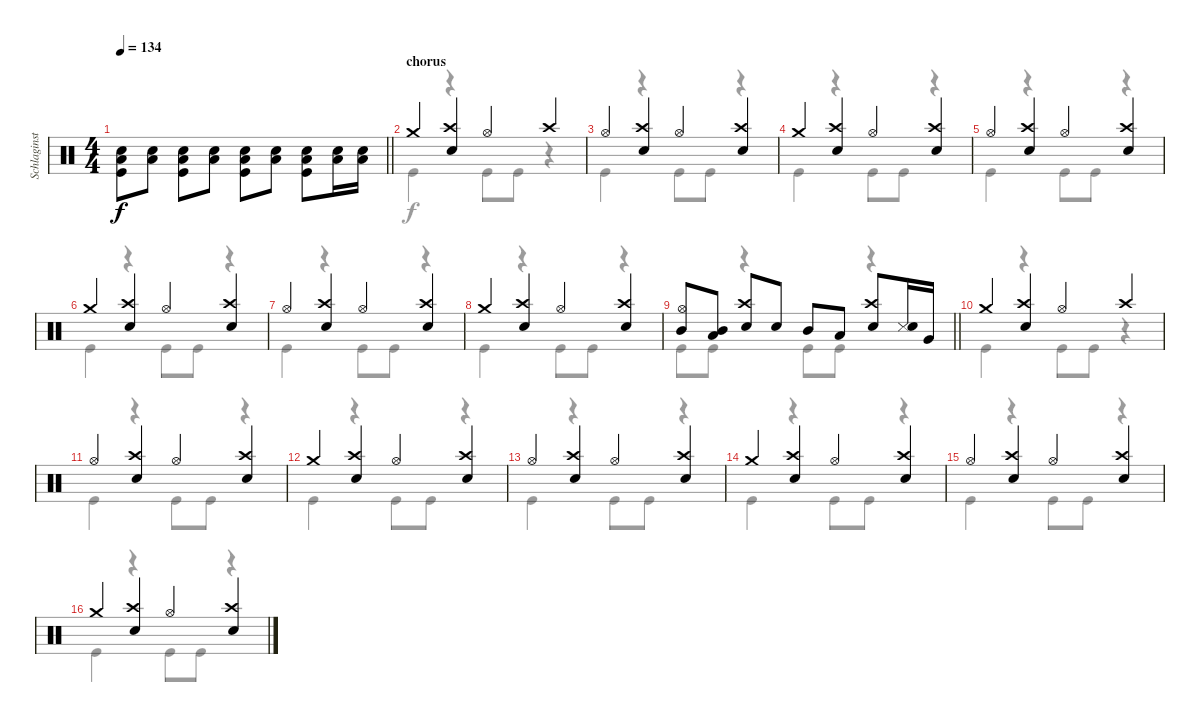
\track ("Schlaginstrumente - Auswahl" "Schlaginst") {instrument percussion}
\staff {score}
\articulation defaults
\voice
\ts (4 4)
\tempo 134
\clef neutral
\barLineRight lightlight
\ks c
("Snare (hit) 2" "Kick (hit)" "Low Tom (hit)").8{dy f} ("Snare (hit) 2" "Low Tom (hit)").8 ("Snare (hit) 2" "Kick (hit)" "Low Tom (hit)").8 ("Snare (hit) 2" "Low Tom (hit)").8 ("Snare (hit) 2" "Kick (hit)" "Low Tom (hit)").8 ("Snare (hit) 2" "Low Tom (hit)").8 ("Snare (hit) 2" "Kick (hit)" "Low Tom (hit)").8 ("Snare (hit) 2" "Low Tom (hit)").16 ("Snare (hit) 2" "Low Tom (hit)").16 |
\section ("" "chorus")
"Crash medium (hit)".4 ("Crash high (hit)" "Snare (hit) 2").4 "Hi-Hat (open)".4 "Crash high (hit)".4 |
"Hi-Hat (open)".4 ("Crash high (hit)" "Snare (hit) 2").4 "Hi-Hat (open)".4 ("Snare (hit) 2" "Crash high (hit)").4 |
"Crash medium (hit)".4 ("Crash high (hit)" "Snare (hit) 2").4 "Hi-Hat (open)".4 ("Crash high (hit)" "Snare (hit) 2").4 |
"Hi-Hat (open)".4 ("Crash high (hit)" "Snare (hit) 2").4 "Hi-Hat (open)".4 ("Snare (hit) 2" "Crash high (hit)").4 |
"Crash medium (hit)".4 ("Crash high (hit)" "Snare (hit) 2").4 "Hi-Hat (open)".4 ("Crash high (hit)" "Snare (hit) 2").4 |
"Hi-Hat (open)".4 ("Crash high (hit)" "Snare (hit) 2").4 "Hi-Hat (open)".4 ("Snare (hit) 2" "Crash high (hit)").4 |
"Crash medium (hit)".4 ("Crash high (hit)" "Snare (hit) 2").4 "Hi-Hat (open)".4 ("Crash high (hit)" "Snare (hit) 2").4 |
\barLineRight lightlight
("Mid Tom (hit)" "Hi-Hat (open)").8 ("Low Tom (hit)" "Mid Tom (hit)").8 ("Snare (hit) 2" "Crash high (hit)").8 "Snare (hit) 2".8 "Mid Tom (hit)".8 "Low Tom (hit)".8 ("Snare (hit) 2" "Crash high (hit)").8 ("Snare (side stick) 3" "Snare (hit) 2").16 "Very Low Tom (hit)".16 |
"Crash medium (hit)".4 ("Crash high (hit)" "Snare (hit) 2").4 "Hi-Hat (open)".4 "Crash high (hit)".4 |
"Hi-Hat (open)".4 ("Crash high (hit)" "Snare (hit) 2").4 "Hi-Hat (open)".4 ("Snare (hit) 2" "Crash high (hit)").4 |
"Crash medium (hit)".4 ("Crash high (hit)" "Snare (hit) 2").4 "Hi-Hat (open)".4 ("Crash high (hit)" "Snare (hit) 2").4 |
"Hi-Hat (open)".4 ("Crash high (hit)" "Snare (hit) 2").4 "Hi-Hat (open)".4 ("Snare (hit) 2" "Crash high (hit)").4 |
"Crash medium (hit)".4 ("Crash high (hit)" "Snare (hit) 2").4 "Hi-Hat (open)".4 ("Crash high (hit)" "Snare (hit) 2").4 |
"Hi-Hat (open)".4 ("Crash high (hit)" "Snare (hit) 2").4 "Hi-Hat (open)".4 ("Snare (hit) 2" "Crash high (hit)").4 |
"Crash medium (hit)".4 ("Crash high (hit)" "Snare (hit) 2").4 "Hi-Hat (open)".4 ("Crash high (hit)" "Snare (hit) 2").4
\voice
\clef neutral
\ottava regular
\simile none
\barLineRight lightlight
\ks c
|
"Kick (hit)".4 r.4 "Kick (hit)".8 "Kick (hit)".8 r.4 |
"Kick (hit)".4 r.4 "Kick (hit)".8 "Kick (hit)".8 r.4 |
"Kick (hit)".4 r.4 "Kick (hit)".8 "Kick (hit)".8 r.4 |
"Kick (hit)".4 r.4 "Kick (hit)".8 "Kick (hit)".8 r.4 |
"Kick (hit)".4 r.4 "Kick (hit)".8 "Kick (hit)".8 r.4 |
"Kick (hit)".4 r.4 "Kick (hit)".8 "Kick (hit)".8 r.4 |
"Kick (hit)".4 r.4 "Kick (hit)".8 "Kick (hit)".8 r.4 |
\barLineRight lightlight "Kick (hit)".8 "Kick (hit)".8
r.4 "Kick (hit)".8 "Kick (hit)".8 r.4 |
"Kick (hit)".4 r.4 "Kick (hit)".8 "Kick (hit)".8 r.4 |
"Kick (hit)".4 r.4 "Kick (hit)".8 "Kick (hit)".8 r.4 |
"Kick (hit)".4 r.4 "Kick (hit)".8 "Kick (hit)".8 r.4 |
"Kick (hit)".4 r.4 "Kick (hit)".8 "Kick (hit)".8 r.4 |
"Kick (hit)".4 r.4 "Kick (hit)".8 "Kick (hit)".8 r.4 |
"Kick (hit)".4 r.4 "Kick (hit)".8 "Kick (hit)".8 r.4 |
"Kick (hit)".4 r.4 "Kick (hit)".8 "Kick (hit)".8 r.4
